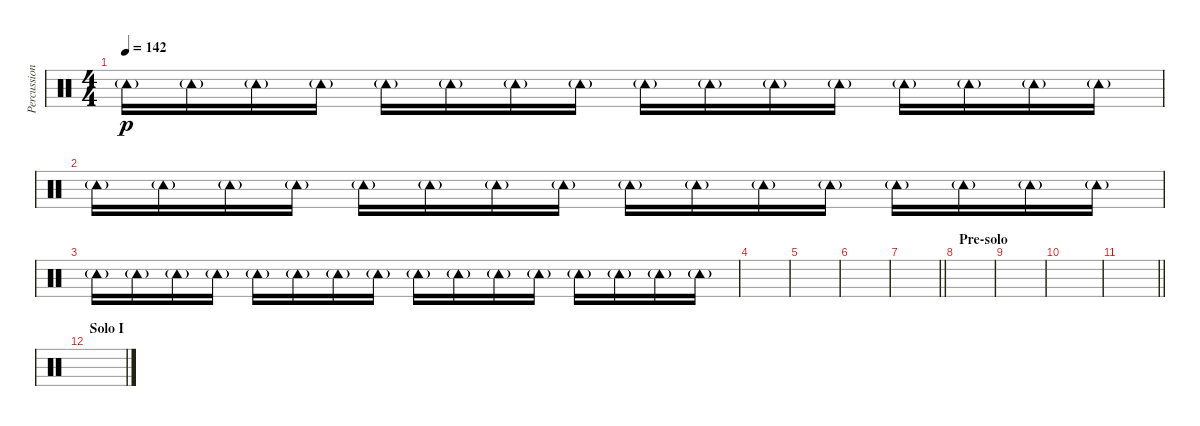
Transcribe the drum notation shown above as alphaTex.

\track ("Percussion" "Percussion") {instrument percussion}
\staff {score}
\articulation defaults
\ts (4 4)
\tempo 142
\clef neutral
\ks c "Tambourine (hit)"{g}.16{dy p} "Tambourine (hit)"{g}.16 "Tambourine (hit)"{g}.16 "Tambourine (hit)"{g}.16 "Tambourine (hit)"{g}.16 "Tambourine (hit)"{g}.16 "Tambourine (hit)"{g}.16 "Tambourine (hit)"{g}.16 "Tambourine (hit)"{g}.16 "Tambourine (hit)"{g}.16 "Tambourine (hit)"{g}.16 "Tambourine (hit)"{g}.16 "Tambourine (hit)"{g}.16 "Tambourine (hit)"{g}.16 "Tambourine (hit)"{g}.16 "Tambourine (hit)"{g}.16
|
"Tambourine (hit)"{g}.16 "Tambourine (hit)"{g}.16 "Tambourine (hit)"{g}.16 "Tambourine (hit)"{g}.16 "Tambourine (hit)"{g}.16 "Tambourine (hit)"{g}.16 "Tambourine (hit)"{g}.16 "Tambourine (hit)"{g}.16 "Tambourine (hit)"{g}.16 "Tambourine (hit)"{g}.16 "Tambourine (hit)"{g}.16 "Tambourine (hit)"{g}.16 "Tambourine (hit)"{g}.16 "Tambourine (hit)"{g}.16 "Tambourine (hit)"{g}.16 "Tambourine (hit)"{g}.16 |
"Tambourine (hit)"{g}.16 "Tambourine (hit)"{g}.16 "Tambourine (hit)"{g}.16 "Tambourine (hit)"{g}.16 "Tambourine (hit)"{g}.16 "Tambourine (hit)"{g}.16 "Tambourine (hit)"{g}.16 "Tambourine (hit)"{g}.16 "Tambourine (hit)"{g}.16 "Tambourine (hit)"{g}.16 "Tambourine (hit)"{g}.16 "Tambourine (hit)"{g}.16 "Tambourine (hit)"{g}.16 "Tambourine (hit)"{g}.16 "Tambourine (hit)"{g}.16 "Tambourine (hit)"{g}.16 |
|
|
|
\barLineRight lightlight
|
\section ("" "Pre-solo")
|
|
|
\barLineRight lightlight
|
\section ("" "Solo I")
